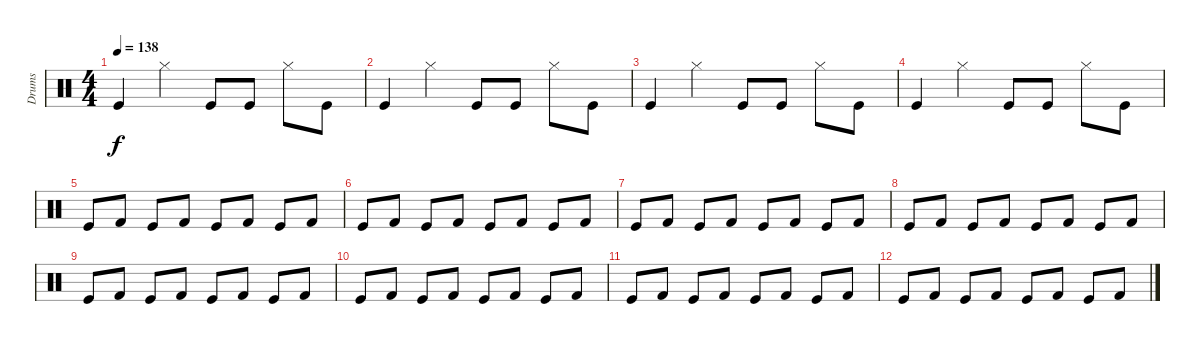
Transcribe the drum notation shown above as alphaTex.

\track ("Drums" "Drums") {instrument percussion}
\staff {score}
\articulation defaults
\ts (4 4)
\tempo 138
\clef neutral
\ks c "Kick (hit)".4{dy f} "Hi-Hat (closed)".4 "Kick (hit)".8 "Kick (hit)".8 "Hi-Hat (closed)".8 "Kick (hit)".8
|
"Kick (hit)".4 "Hi-Hat (closed)".4 "Kick (hit)".8 "Kick (hit)".8 "Hi-Hat (closed)".8 "Kick (hit)".8 |
"Kick (hit)".4 "Hi-Hat (closed)".4 "Kick (hit)".8 "Kick (hit)".8 "Hi-Hat (closed)".8 "Kick (hit)".8 |
"Kick (hit)".4 "Hi-Hat (closed)".4 "Kick (hit)".8 "Kick (hit)".8 "Hi-Hat (closed)".8 "Kick (hit)".8 |
"Kick (hit)".8 "Kick (hit) 2".8 "Kick (hit)".8 "Kick (hit) 2".8 "Kick (hit)".8 "Kick (hit) 2".8 "Kick (hit)".8 "Kick (hit) 2".8 |
"Kick (hit)".8 "Kick (hit) 2".8 "Kick (hit)".8 "Kick (hit) 2".8 "Kick (hit)".8 "Kick (hit) 2".8 "Kick (hit)".8 "Kick (hit) 2".8 |
"Kick (hit)".8 "Kick (hit) 2".8 "Kick (hit)".8 "Kick (hit) 2".8 "Kick (hit)".8 "Kick (hit) 2".8 "Kick (hit)".8 "Kick (hit) 2".8 |
"Kick (hit)".8 "Kick (hit) 2".8 "Kick (hit)".8 "Kick (hit) 2".8 "Kick (hit)".8 "Kick (hit) 2".8 "Kick (hit)".8 "Kick (hit) 2".8 |
"Kick (hit)".8 "Kick (hit) 2".8 "Kick (hit)".8 "Kick (hit) 2".8 "Kick (hit)".8 "Kick (hit) 2".8 "Kick (hit)".8 "Kick (hit) 2".8 |
"Kick (hit)".8 "Kick (hit) 2".8 "Kick (hit)".8 "Kick (hit) 2".8 "Kick (hit)".8 "Kick (hit) 2".8 "Kick (hit)".8 "Kick (hit) 2".8 |
"Kick (hit)".8 "Kick (hit) 2".8 "Kick (hit)".8 "Kick (hit) 2".8 "Kick (hit)".8 "Kick (hit) 2".8 "Kick (hit)".8 "Kick (hit) 2".8 |
"Kick (hit)".8 "Kick (hit) 2".8 "Kick (hit)".8 "Kick (hit) 2".8 "Kick (hit)".8 "Kick (hit) 2".8 "Kick (hit)".8 "Kick (hit) 2".8
